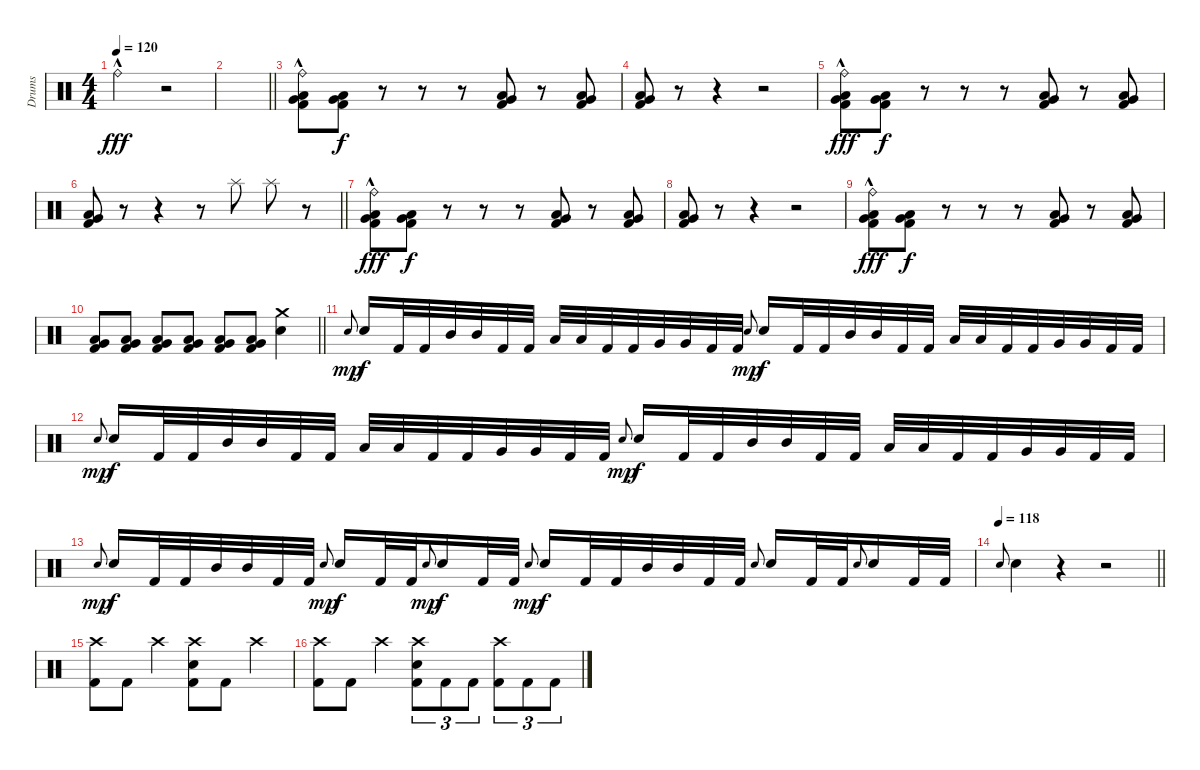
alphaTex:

\track ("Drums" "Drums") {instrument percussion}
\staff {score}
\articulation defaults
\ts (4 4)
\tempo 120
\clef neutral
\ks c "Ride (bell)"{hac}.2{dy fff}
r.2 |
\barLineRight lightlight
|
("Ride (bell)"{hac} "Low Tom (hit)" "Very Low Tom (hit)" "Kick (hit) 2").8 ("Low Tom (hit)" "Very Low Tom (hit)" "Kick (hit) 2").8{dy f} r.8 r.8 r.8 ("Low Tom (hit)" "Very Low Tom (hit)" "Kick (hit) 2").8 r.8 ("Low Tom (hit)" "Very Low Tom (hit)" "Kick (hit) 2").8 |
("Low Tom (hit)" "Very Low Tom (hit)" "Kick (hit) 2").8 r.8 r.4 r.2 |
("Ride (bell)"{hac} "Low Tom (hit)" "Very Low Tom (hit)" "Kick (hit) 2").8{dy fff} ("Low Tom (hit)" "Very Low Tom (hit)" "Kick (hit) 2").8{dy f} r.8 r.8 r.8 ("Low Tom (hit)" "Very Low Tom (hit)" "Kick (hit) 2").8 r.8 ("Low Tom (hit)" "Very Low Tom (hit)" "Kick (hit) 2").8 |
\barLineRight lightlight
("Low Tom (hit)" "Very Low Tom (hit)" "Kick (hit) 2").8 r.8 r.4 r.8 "Splash (hit)".8 "Splash (hit)".8 r.8 |
("Ride (bell)"{hac} "Low Tom (hit)" "Very Low Tom (hit)" "Kick (hit) 2").8{dy fff} ("Low Tom (hit)" "Very Low Tom (hit)" "Kick (hit) 2").8{dy f} r.8 r.8 r.8 ("Low Tom (hit)" "Very Low Tom (hit)" "Kick (hit) 2").8 r.8 ("Low Tom (hit)" "Very Low Tom (hit)" "Kick (hit) 2").8 |
("Low Tom (hit)" "Very Low Tom (hit)" "Kick (hit) 2").8 r.8 r.4 r.2 |
("Ride (bell)"{hac} "Low Tom (hit)" "Very Low Tom (hit)" "Kick (hit) 2").8{dy fff} ("Low Tom (hit)" "Very Low Tom (hit)" "Kick (hit) 2").8{dy f} r.8 r.8 r.8 ("Low Tom (hit)" "Very Low Tom (hit)" "Kick (hit) 2").8 r.8 ("Low Tom (hit)" "Very Low Tom (hit)" "Kick (hit) 2").8 |
\barLineRight lightlight
("Low Tom (hit)" "Very Low Tom (hit)" "Kick (hit) 2").8 ("Low Tom (hit)" "Very Low Tom (hit)" "Kick (hit) 2").8 ("Low Tom (hit)" "Very Low Tom (hit)" "Kick (hit) 2").8 ("Low Tom (hit)" "Very Low Tom (hit)" "Kick (hit) 2").8 ("Low Tom (hit)" "Very Low Tom (hit)" "Kick (hit) 2").8 ("Low Tom (hit)" "Very Low Tom (hit)" "Kick (hit) 2").8 ("Crash medium (hit)" "Electric Snare (hit)").4 |
"Electric Snare (hit)".8{gr onbeat dy mp} "Electric Snare (hit)".16{dy f} "Kick (hit) 2".32 "Kick (hit) 2".32 "Mid Tom (hit)".32 "Mid Tom (hit)".32 "Kick (hit) 2".32 "Kick (hit) 2".32 "Low Tom (hit)".32 "Low Tom (hit)".32 "Kick (hit) 2".32 "Kick (hit) 2".32 "Very Low Tom (hit)".32 "Very Low Tom (hit)".32 "Kick (hit) 2".32 "Kick (hit) 2".32 "Electric Snare (hit)".8{gr onbeat dy mp} "Electric Snare (hit)".16{dy f} "Kick (hit) 2".32 "Kick (hit) 2".32 "Mid Tom (hit)".32 "Mid Tom (hit)".32 "Kick (hit) 2".32 "Kick (hit) 2".32 "Low Tom (hit)".32 "Low Tom (hit)".32 "Kick (hit) 2".32 "Kick (hit) 2".32 "Very Low Tom (hit)".32 "Very Low Tom (hit)".32 "Kick (hit) 2".32 "Kick (hit) 2".32 |
"Electric Snare (hit)".8{gr onbeat dy mp} "Electric Snare (hit)".16{dy f} "Kick (hit) 2".32 "Kick (hit) 2".32 "Mid Tom (hit)".32 "Mid Tom (hit)".32 "Kick (hit) 2".32 "Kick (hit) 2".32 "Low Tom (hit)".32 "Low Tom (hit)".32 "Kick (hit) 2".32 "Kick (hit) 2".32 "Very Low Tom (hit)".32 "Very Low Tom (hit)".32 "Kick (hit) 2".32 "Kick (hit) 2".32 "Electric Snare (hit)".8{gr onbeat dy mp} "Electric Snare (hit)".16{dy f} "Kick (hit) 2".32 "Kick (hit) 2".32 "Mid Tom (hit)".32 "Mid Tom (hit)".32 "Kick (hit) 2".32 "Kick (hit) 2".32 "Low Tom (hit)".32 "Low Tom (hit)".32 "Kick (hit) 2".32 "Kick (hit) 2".32 "Very Low Tom (hit)".32 "Very Low Tom (hit)".32 "Kick (hit) 2".32 "Kick (hit) 2".32 |
"Electric Snare (hit)".8{gr onbeat dy mp} "Electric Snare (hit)".16{dy f} "Kick (hit) 2".32 "Kick (hit) 2".32 "Mid Tom (hit)".32 "Mid Tom (hit)".32 "Kick (hit) 2".32 "Kick (hit) 2".32 "Electric Snare (hit)".8{gr onbeat dy mp} "Electric Snare (hit)".16{dy f} "Kick (hit) 2".32 "Kick (hit) 2".32 "Electric Snare (hit)".8{gr onbeat dy mp} "Electric Snare (hit)".16{dy f} "Kick (hit) 2".32 "Kick (hit) 2".32 "Electric Snare (hit)".8{gr onbeat dy mp} "Electric Snare (hit)".16{dy f} "Kick (hit) 2".32 "Kick (hit) 2".32 "Mid Tom (hit)".32 "Mid Tom (hit)".32 "Kick (hit) 2".32 "Kick (hit) 2".32 "Electric Snare (hit)".8{gr onbeat} "Electric Snare (hit)".16 "Kick (hit) 2".32 "Kick (hit) 2".32 "Electric Snare (hit)".8{gr onbeat} "Electric Snare (hit)".16 "Kick (hit) 2".32 "Kick (hit) 2".32 |
\tempo 118
\barLineRight lightlight "Electric Snare (hit)".8{gr onbeat} "Electric Snare (hit)".4
r.4 r.2 |
("Crash high (hit)" "Kick (hit) 2").8 "Kick (hit) 2".8 "Crash high (hit)".4 ("Crash high (hit)" "Electric Snare (hit)" "Kick (hit) 2").8 "Kick (hit) 2".8 "Crash high (hit)".4 |
("Crash high (hit)" "Kick (hit) 2").8 "Kick (hit) 2".8 "Crash high (hit)".4 ("Crash high (hit)" "Electric Snare (hit)" "Kick (hit) 2").8{tu (3 2)} "Kick (hit) 2".8{tu (3 2)} "Kick (hit) 2".8{tu (3 2)} ("Crash high (hit)" "Kick (hit) 2").8{tu (3 2)} "Kick (hit) 2".8{tu (3 2)} "Kick (hit) 2".8{tu (3 2)}
